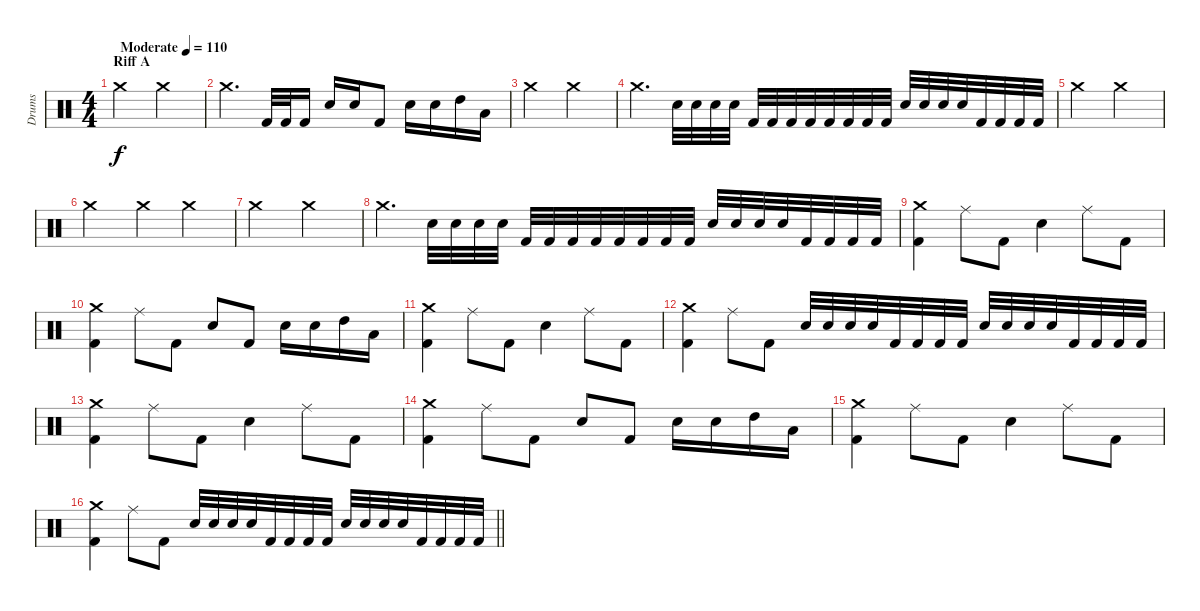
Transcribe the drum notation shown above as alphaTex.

\track ("Drums" "Drums") {instrument percussion}
\staff {score}
\articulation defaults
\ts (4 4)
\section ("" "Riff A")
\tempo (110 "Moderate")
\clef neutral
\ks c "Crash medium (hit)".2{dy f} "Crash medium (hit)".2
|
"Crash medium (hit)".4{d} "Kick (hit) 2".32 "Kick (hit) 2".32 "Kick (hit) 2".16 "Electric Snare (hit)".16 "Electric Snare (hit)".16 "Kick (hit) 2".8 "Electric Snare (hit)".16 "Electric Snare (hit)".16 "High Tom (hit)".16 "Low Tom (hit)".16 |
"Crash medium (hit)".2 "Crash medium (hit)".2 |
"Crash medium (hit)".4{d} "Electric Snare (hit)".32 "Electric Snare (hit)".32 "Electric Snare (hit)".32 "Electric Snare (hit)".32 "Kick (hit) 2".32 "Kick (hit) 2".32 "Kick (hit) 2".32 "Kick (hit) 2".32 "Kick (hit) 2".32 "Kick (hit) 2".32 "Kick (hit) 2".32 "Kick (hit) 2".32 "Electric Snare (hit)".32 "Electric Snare (hit)".32 "Electric Snare (hit)".32 "Electric Snare (hit)".32 "Kick (hit) 2".32 "Kick (hit) 2".32 "Kick (hit) 2".32 "Kick (hit) 2".32 |
"Crash medium (hit)".2 "Crash medium (hit)".2 |
"Crash medium (hit)".2 "Crash medium (hit)".4 "Crash medium (hit)".4 |
"Crash medium (hit)".2 "Crash medium (hit)".2 |
"Crash medium (hit)".4{d} "Electric Snare (hit)".32 "Electric Snare (hit)".32 "Electric Snare (hit)".32 "Electric Snare (hit)".32 "Kick (hit) 2".32 "Kick (hit) 2".32 "Kick (hit) 2".32 "Kick (hit) 2".32 "Kick (hit) 2".32 "Kick (hit) 2".32 "Kick (hit) 2".32 "Kick (hit) 2".32 "Electric Snare (hit)".32 "Electric Snare (hit)".32 "Electric Snare (hit)".32 "Electric Snare (hit)".32 "Kick (hit) 2".32 "Kick (hit) 2".32 "Kick (hit) 2".32 "Kick (hit) 2".32 |
("Crash medium (hit)" "Kick (hit) 2").4 "Ride (middle)".8 "Kick (hit) 2".8 "Electric Snare (hit)".4 "Ride (middle)".8 "Kick (hit) 2".8 |
("Crash medium (hit)" "Kick (hit) 2").4 "Ride (middle)".8 "Kick (hit) 2".8 "Electric Snare (hit)".8 "Kick (hit) 2".8 "Electric Snare (hit)".16 "Electric Snare (hit)".16 "High Tom (hit)".16 "Low Tom (hit)".16 |
("Crash medium (hit)" "Kick (hit) 2").4 "Ride (middle)".8 "Kick (hit) 2".8 "Electric Snare (hit)".4 "Ride (middle)".8 "Kick (hit) 2".8 |
("Crash medium (hit)" "Kick (hit) 2").4 "Ride (middle)".8 "Kick (hit) 2".8 "Electric Snare (hit)".32 "Electric Snare (hit)".32 "Electric Snare (hit)".32 "Electric Snare (hit)".32 "Kick (hit) 2".32 "Kick (hit) 2".32 "Kick (hit) 2".32 "Kick (hit) 2".32 "Electric Snare (hit)".32 "Electric Snare (hit)".32 "Electric Snare (hit)".32 "Electric Snare (hit)".32 "Kick (hit) 2".32 "Kick (hit) 2".32 "Kick (hit) 2".32 "Kick (hit) 2".32 |
("Crash medium (hit)" "Kick (hit) 2").4 "Ride (middle)".8 "Kick (hit) 2".8 "Electric Snare (hit)".4 "Ride (middle)".8 "Kick (hit) 2".8 |
("Crash medium (hit)" "Kick (hit) 2").4 "Ride (middle)".8 "Kick (hit) 2".8 "Electric Snare (hit)".8 "Kick (hit) 2".8 "Electric Snare (hit)".16 "Electric Snare (hit)".16 "High Tom (hit)".16 "Low Tom (hit)".16 |
("Crash medium (hit)" "Kick (hit) 2").4 "Ride (middle)".8 "Kick (hit) 2".8 "Electric Snare (hit)".4 "Ride (middle)".8 "Kick (hit) 2".8 |
\barLineRight lightlight
("Crash medium (hit)" "Kick (hit) 2").4 "Ride (middle)".8 "Kick (hit) 2".8 "Electric Snare (hit)".32 "Electric Snare (hit)".32 "Electric Snare (hit)".32 "Electric Snare (hit)".32 "Kick (hit) 2".32 "Kick (hit) 2".32 "Kick (hit) 2".32 "Kick (hit) 2".32 "Electric Snare (hit)".32 "Electric Snare (hit)".32 "Electric Snare (hit)".32 "Electric Snare (hit)".32 "Kick (hit) 2".32 "Kick (hit) 2".32 "Kick (hit) 2".32 "Kick (hit) 2".32
